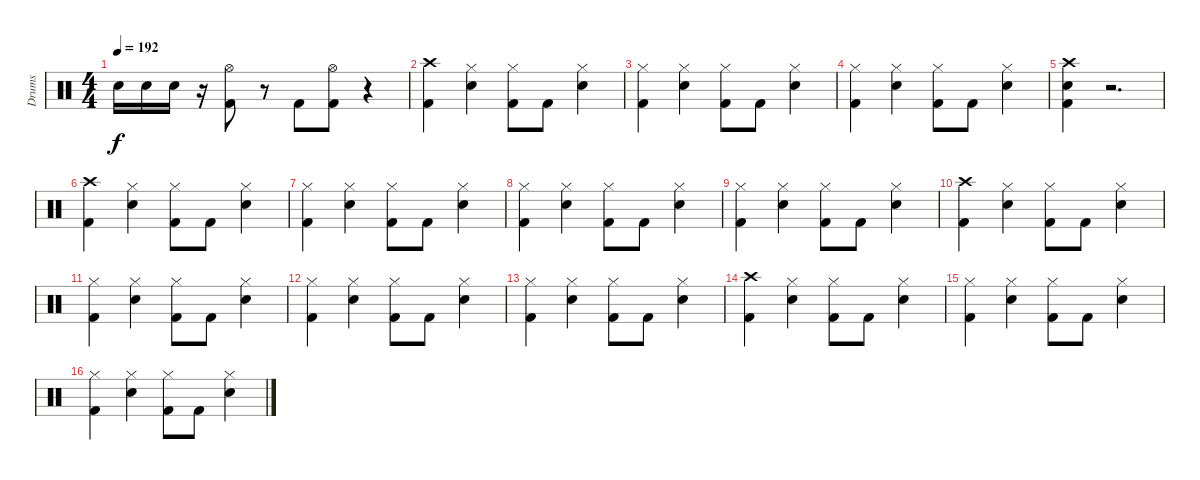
\track ("Drums" "Drums") {instrument percussion}
\staff {score}
\articulation defaults
\ts (4 4)
\tempo 192
\clef neutral
\ks c "Snare (hit) 2".16{dy f} "Snare (hit) 2".16 "Electric Snare (hit)".16
r.16 ("Hi-Hat (open)" "Kick (hit) 2").8 r.8 "Kick (hit) 2".8 ("Hi-Hat (open)" "Kick (hit) 2").8 r.4 |
("Kick (hit) 2" "Crash high (hit)").4 ("Electric Snare (hit)" "Hi-Hat (closed)").4 ("Kick (hit) 2" "Hi-Hat (closed)").8 "Kick (hit) 2".8 ("Electric Snare (hit)" "Hi-Hat (closed)").4 |
("Kick (hit) 2" "Hi-Hat (closed)").4 ("Electric Snare (hit)" "Hi-Hat (closed)").4 ("Kick (hit) 2" "Hi-Hat (closed)").8 "Kick (hit) 2".8 ("Electric Snare (hit)" "Hi-Hat (closed)").4 |
("Kick (hit) 2" "Hi-Hat (closed)").4 ("Electric Snare (hit)" "Hi-Hat (closed)").4 ("Kick (hit) 2" "Hi-Hat (closed)").8 "Kick (hit) 2".8 ("Electric Snare (hit)" "Hi-Hat (closed)").4 |
("Crash high (hit)" "Electric Snare (hit)" "Kick (hit) 2").4 r.2{d} |
("Kick (hit) 2" "Crash high (hit)").4 ("Electric Snare (hit)" "Hi-Hat (closed)").4 ("Kick (hit) 2" "Hi-Hat (closed)").8 "Kick (hit) 2".8 ("Electric Snare (hit)" "Hi-Hat (closed)").4 |
("Kick (hit) 2" "Hi-Hat (closed)").4 ("Electric Snare (hit)" "Hi-Hat (closed)").4 ("Kick (hit) 2" "Hi-Hat (closed)").8 "Kick (hit) 2".8 ("Electric Snare (hit)" "Hi-Hat (closed)").4 |
("Kick (hit) 2" "Hi-Hat (closed)").4 ("Electric Snare (hit)" "Hi-Hat (closed)").4 ("Kick (hit) 2" "Hi-Hat (closed)").8 "Kick (hit) 2".8 ("Electric Snare (hit)" "Hi-Hat (closed)").4 |
("Kick (hit) 2" "Hi-Hat (closed)").4 ("Electric Snare (hit)" "Hi-Hat (closed)").4 ("Kick (hit) 2" "Hi-Hat (closed)").8 "Kick (hit) 2".8 ("Electric Snare (hit)" "Hi-Hat (closed)").4 |
("Kick (hit) 2" "Crash high (hit)").4 ("Electric Snare (hit)" "Hi-Hat (closed)").4 ("Kick (hit) 2" "Hi-Hat (closed)").8 "Kick (hit) 2".8 ("Electric Snare (hit)" "Hi-Hat (closed)").4 |
("Kick (hit) 2" "Hi-Hat (closed)").4 ("Electric Snare (hit)" "Hi-Hat (closed)").4 ("Kick (hit) 2" "Hi-Hat (closed)").8 "Kick (hit) 2".8 ("Electric Snare (hit)" "Hi-Hat (closed)").4 |
("Kick (hit) 2" "Hi-Hat (closed)").4 ("Electric Snare (hit)" "Hi-Hat (closed)").4 ("Kick (hit) 2" "Hi-Hat (closed)").8 "Kick (hit) 2".8 ("Electric Snare (hit)" "Hi-Hat (closed)").4 |
("Kick (hit) 2" "Hi-Hat (closed)").4 ("Electric Snare (hit)" "Hi-Hat (closed)").4 ("Kick (hit) 2" "Hi-Hat (closed)").8 "Kick (hit) 2".8 ("Electric Snare (hit)" "Hi-Hat (closed)").4 |
("Kick (hit) 2" "Crash high (hit)").4 ("Electric Snare (hit)" "Hi-Hat (closed)").4 ("Kick (hit) 2" "Hi-Hat (closed)").8 "Kick (hit) 2".8 ("Electric Snare (hit)" "Hi-Hat (closed)").4 |
("Kick (hit) 2" "Hi-Hat (closed)").4 ("Electric Snare (hit)" "Hi-Hat (closed)").4 ("Kick (hit) 2" "Hi-Hat (closed)").8 "Kick (hit) 2".8 ("Electric Snare (hit)" "Hi-Hat (closed)").4 |
("Kick (hit) 2" "Hi-Hat (closed)").4 ("Electric Snare (hit)" "Hi-Hat (closed)").4 ("Kick (hit) 2" "Hi-Hat (closed)").8 "Kick (hit) 2".8 ("Electric Snare (hit)" "Hi-Hat (closed)").4
